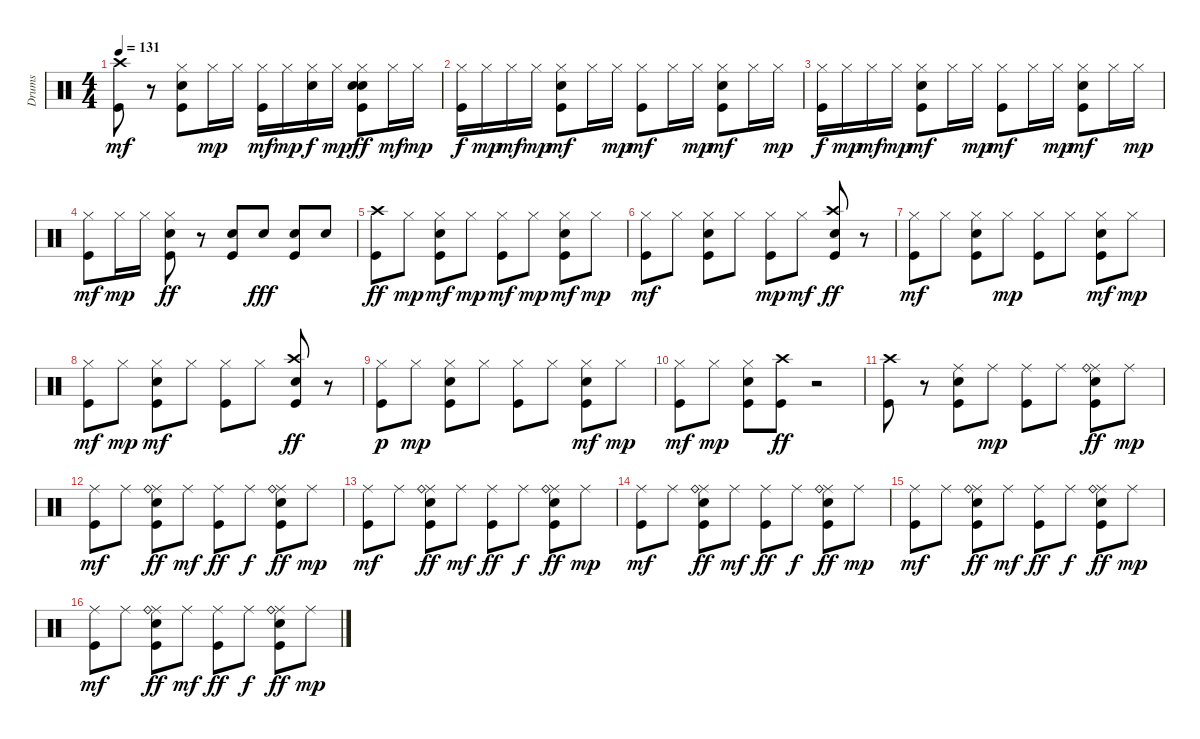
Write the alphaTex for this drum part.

\track ("Drums" "Drums") {instrument percussion}
\staff {score}
\articulation defaults
\ts (4 4)
\tempo 131
\clef neutral
\ks c
("Kick (hit)" "Crash high (hit)").8{dy mf} r.8 ("Kick (hit)" "Snare (hit) 2" "Hi-Hat (closed)").8 "Hi-Hat (closed)".16{dy mp} "Hi-Hat (closed)".16 ("Kick (hit)" "Hi-Hat (closed)").16{dy mf} "Hi-Hat (closed)".16{dy mp} ("Hi-Hat (closed)" "Hand Clap (hit)").16{dy f} "Hi-Hat (closed)".16{dy mp} ("Kick (hit)" "Snare (hit) 2" "Hi-Hat (closed)" "Hand Clap (hit)").8{dy ff} "Hi-Hat (closed)".16{dy mf} "Hi-Hat (closed)".16{dy mp} |
("Kick (hit)" "Hi-Hat (closed)").16{dy f} "Hi-Hat (closed)".16{dy mp} "Hi-Hat (closed)".16{dy mf} "Hi-Hat (closed)".16{dy mp} ("Kick (hit)" "Snare (hit) 2" "Hi-Hat (closed)").8{dy mf} "Hi-Hat (closed)".16 "Hi-Hat (closed)".16{dy mp} ("Kick (hit)" "Hi-Hat (closed)").8{dy mf} "Hi-Hat (closed)".16 "Hi-Hat (closed)".16{dy mp} ("Kick (hit)" "Snare (hit) 2" "Hi-Hat (closed)").8{dy mf} "Hi-Hat (closed)".16 "Hi-Hat (closed)".16{dy mp} |
("Kick (hit)" "Hi-Hat (closed)").16{dy f} "Hi-Hat (closed)".16{dy mp} "Hi-Hat (closed)".16{dy mf} "Hi-Hat (closed)".16{dy mp} ("Kick (hit)" "Snare (hit) 2" "Hi-Hat (closed)").8{dy mf} "Hi-Hat (closed)".16 "Hi-Hat (closed)".16{dy mp} ("Kick (hit)" "Hi-Hat (closed)").8{dy mf} "Hi-Hat (closed)".16 "Hi-Hat (closed)".16{dy mp} ("Kick (hit)" "Snare (hit) 2" "Hi-Hat (closed)").8{dy mf} "Hi-Hat (closed)".16 "Hi-Hat (closed)".16{dy mp} |
("Kick (hit)" "Hi-Hat (closed)").8{dy mf} "Hi-Hat (closed)".16{dy mp} "Hi-Hat (closed)".16 ("Kick (hit)" "Snare (hit) 2" "Hi-Hat (closed)").8{dy ff} r.8 ("Kick (hit)" "Snare (hit) 2").8 "Snare (hit) 2".8{dy fff} ("Kick (hit)" "Snare (hit) 2").8 "Snare (hit) 2".8 |
("Kick (hit)" "Crash high (hit)").8{dy ff} "Hi-Hat (closed)".8{dy mp} ("Kick (hit)" "Snare (hit) 2" "Hi-Hat (closed)").8{dy mf} "Hi-Hat (closed)".8{dy mp} ("Kick (hit)" "Hi-Hat (closed)").8{dy mf} "Hi-Hat (closed)".8{dy mp} ("Kick (hit)" "Snare (hit) 2" "Hi-Hat (closed)").8{dy mf} "Hi-Hat (closed)".8{dy mp} |
("Kick (hit)" "Hi-Hat (closed)").8{dy mf} "Hi-Hat (closed)".8 ("Kick (hit)" "Snare (hit) 2" "Hi-Hat (closed)").8 "Hi-Hat (closed)".8 ("Kick (hit)" "Hi-Hat (closed)").8{dy mp} "Hi-Hat (closed)".8{dy mf} ("Kick (hit)" "Snare (hit) 2" "Crash high (hit)").8{dy ff} r.8 |
("Kick (hit)" "Hi-Hat (closed)").8{dy mf} "Hi-Hat (closed)".8 ("Kick (hit)" "Snare (hit) 2" "Hi-Hat (closed)").8 "Hi-Hat (closed)".8{dy mp} ("Kick (hit)" "Hi-Hat (closed)").8 "Hi-Hat (closed)".8 ("Kick (hit)" "Snare (hit) 2" "Hi-Hat (closed)").8{dy mf} "Hi-Hat (closed)".8{dy mp} |
("Kick (hit)" "Hi-Hat (closed)").8{dy mf} "Hi-Hat (closed)".8{dy mp} ("Kick (hit)" "Snare (hit) 2" "Hi-Hat (closed)").8{dy mf} "Hi-Hat (closed)".8 ("Kick (hit)" "Hi-Hat (closed)").8 "Hi-Hat (closed)".8 ("Kick (hit)" "Snare (hit) 2" "Crash high (hit)").8{dy ff} r.8 |
("Kick (hit)" "Hi-Hat (closed)").8{dy p} "Hi-Hat (closed)".8{dy mp} ("Kick (hit)" "Snare (hit) 2" "Hi-Hat (closed)").8 "Hi-Hat (closed)".8 ("Kick (hit)" "Hi-Hat (closed)").8 "Hi-Hat (closed)".8 ("Kick (hit)" "Snare (hit) 2" "Hi-Hat (closed)").8{dy mf} "Hi-Hat (closed)".8{dy mp} |
("Kick (hit)" "Hi-Hat (closed)").8{dy mf} "Hi-Hat (closed)".8{dy mp} ("Kick (hit)" "Snare (hit) 2" "Hi-Hat (closed)").8 ("Kick (hit)" "Crash high (hit)").8{dy ff} r.2 |
("Kick (hit)" "Crash high (hit)").8 r.8 ("Kick (hit)" "Snare (hit) 2" "Ride (middle)").8 "Ride (middle)".8{dy mp} ("Kick (hit)" "Ride (middle)").8 "Ride (middle)".8 ("Kick (hit)" "Snare (hit) 2" "Ride (middle)" "Ride (bell)").8{dy ff} "Ride (middle)".8{dy mp} |
("Kick (hit)" "Ride (middle)").8{dy mf} "Ride (middle)".8 ("Kick (hit)" "Snare (hit) 2" "Ride (middle)" "Ride (bell)").8{dy ff} "Ride (middle)".8{dy mf} ("Kick (hit)" "Ride (middle)").8{dy ff} "Ride (middle)".8{dy f} ("Kick (hit)" "Snare (hit) 2" "Ride (middle)" "Ride (bell)").8{dy ff} "Ride (middle)".8{dy mp} |
("Kick (hit)" "Ride (middle)").8{dy mf} "Ride (middle)".8 ("Kick (hit)" "Snare (hit) 2" "Ride (middle)" "Ride (bell)").8{dy ff} "Ride (middle)".8{dy mf} ("Kick (hit)" "Ride (middle)").8{dy ff} "Ride (middle)".8{dy f} ("Kick (hit)" "Snare (hit) 2" "Ride (middle)" "Ride (bell)").8{dy ff} "Ride (middle)".8{dy mp} |
("Kick (hit)" "Ride (middle)").8{dy mf} "Ride (middle)".8 ("Kick (hit)" "Snare (hit) 2" "Ride (middle)" "Ride (bell)").8{dy ff} "Ride (middle)".8{dy mf} ("Kick (hit)" "Ride (middle)").8{dy ff} "Ride (middle)".8{dy f} ("Kick (hit)" "Snare (hit) 2" "Ride (middle)" "Ride (bell)").8{dy ff} "Ride (middle)".8{dy mp} |
("Kick (hit)" "Ride (middle)").8{dy mf} "Ride (middle)".8 ("Kick (hit)" "Snare (hit) 2" "Ride (middle)" "Ride (bell)").8{dy ff} "Ride (middle)".8{dy mf} ("Kick (hit)" "Ride (middle)").8{dy ff} "Ride (middle)".8{dy f} ("Kick (hit)" "Snare (hit) 2" "Ride (middle)" "Ride (bell)").8{dy ff} "Ride (middle)".8{dy mp} |
("Kick (hit)" "Ride (middle)").8{dy mf} "Ride (middle)".8 ("Kick (hit)" "Snare (hit) 2" "Ride (middle)" "Ride (bell)").8{dy ff} "Ride (middle)".8{dy mf} ("Kick (hit)" "Ride (middle)").8{dy ff} "Ride (middle)".8{dy f} ("Kick (hit)" "Snare (hit) 2" "Ride (middle)" "Ride (bell)").8{dy ff} "Ride (middle)".8{dy mp}
